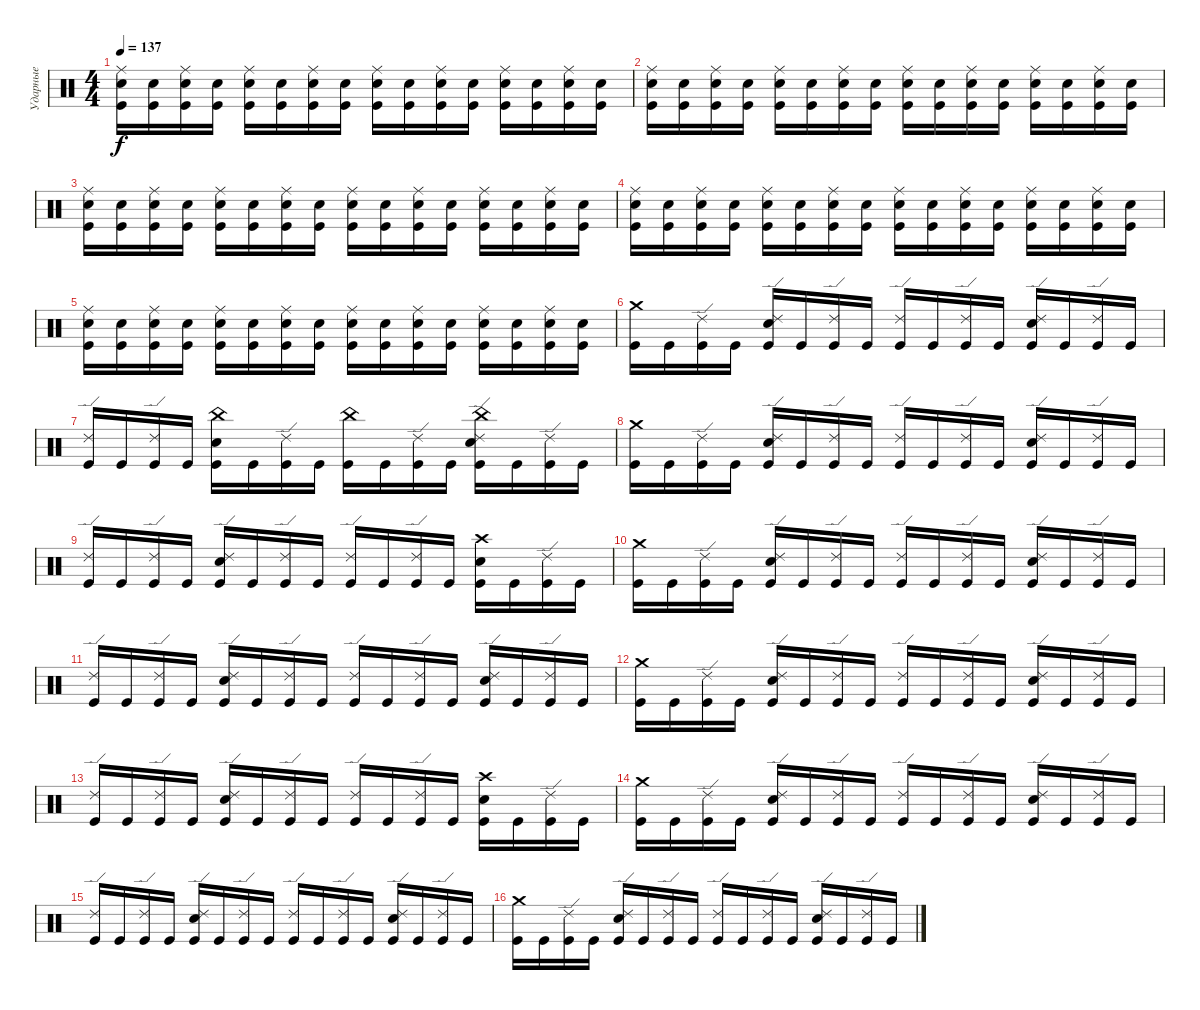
\track ("Ударные" "Ударные") {instrument percussion}
\staff {score}
\articulation defaults
\ts (4 4)
\tempo 137
\clef neutral
\ks c
("Ride (middle)" "Electric Snare (hit)" "Kick (hit)").16{dy f} ("Electric Snare (hit)" "Kick (hit)").16 ("Ride (middle)" "Electric Snare (hit)" "Kick (hit)").16 ("Electric Snare (hit)" "Kick (hit)").16 ("Ride (middle)" "Electric Snare (hit)" "Kick (hit)").16 ("Electric Snare (hit)" "Kick (hit)").16 ("Ride (middle)" "Electric Snare (hit)" "Kick (hit)").16 ("Electric Snare (hit)" "Kick (hit)").16 ("Ride (middle)" "Electric Snare (hit)" "Kick (hit)").16 ("Electric Snare (hit)" "Kick (hit)").16 ("Ride (middle)" "Electric Snare (hit)" "Kick (hit)").16 ("Electric Snare (hit)" "Kick (hit)").16 ("Ride (middle)" "Electric Snare (hit)" "Kick (hit)").16 ("Electric Snare (hit)" "Kick (hit)").16 ("Ride (middle)" "Electric Snare (hit)" "Kick (hit)").16 ("Electric Snare (hit)" "Kick (hit)").16 |
("Ride (middle)" "Electric Snare (hit)" "Kick (hit)").16 ("Electric Snare (hit)" "Kick (hit)").16 ("Ride (middle)" "Electric Snare (hit)" "Kick (hit)").16 ("Electric Snare (hit)" "Kick (hit)").16 ("Ride (middle)" "Electric Snare (hit)" "Kick (hit)").16 ("Electric Snare (hit)" "Kick (hit)").16 ("Ride (middle)" "Electric Snare (hit)" "Kick (hit)").16 ("Electric Snare (hit)" "Kick (hit)").16 ("Ride (middle)" "Electric Snare (hit)" "Kick (hit)").16 ("Electric Snare (hit)" "Kick (hit)").16 ("Ride (middle)" "Electric Snare (hit)" "Kick (hit)").16 ("Electric Snare (hit)" "Kick (hit)").16 ("Ride (middle)" "Electric Snare (hit)" "Kick (hit)").16 ("Electric Snare (hit)" "Kick (hit)").16 ("Ride (middle)" "Electric Snare (hit)" "Kick (hit)").16 ("Electric Snare (hit)" "Kick (hit)").16 |
("Ride (middle)" "Electric Snare (hit)" "Kick (hit)").16 ("Electric Snare (hit)" "Kick (hit)").16 ("Ride (middle)" "Electric Snare (hit)" "Kick (hit)").16 ("Electric Snare (hit)" "Kick (hit)").16 ("Ride (middle)" "Electric Snare (hit)" "Kick (hit)").16 ("Electric Snare (hit)" "Kick (hit)").16 ("Ride (middle)" "Electric Snare (hit)" "Kick (hit)").16 ("Electric Snare (hit)" "Kick (hit)").16 ("Ride (middle)" "Electric Snare (hit)" "Kick (hit)").16 ("Electric Snare (hit)" "Kick (hit)").16 ("Ride (middle)" "Electric Snare (hit)" "Kick (hit)").16 ("Electric Snare (hit)" "Kick (hit)").16 ("Ride (middle)" "Electric Snare (hit)" "Kick (hit)").16 ("Electric Snare (hit)" "Kick (hit)").16 ("Ride (middle)" "Electric Snare (hit)" "Kick (hit)").16 ("Electric Snare (hit)" "Kick (hit)").16 |
("Ride (middle)" "Electric Snare (hit)" "Kick (hit)").16 ("Electric Snare (hit)" "Kick (hit)").16 ("Ride (middle)" "Electric Snare (hit)" "Kick (hit)").16 ("Electric Snare (hit)" "Kick (hit)").16 ("Ride (middle)" "Electric Snare (hit)" "Kick (hit)").16 ("Electric Snare (hit)" "Kick (hit)").16 ("Ride (middle)" "Electric Snare (hit)" "Kick (hit)").16 ("Electric Snare (hit)" "Kick (hit)").16 ("Ride (middle)" "Electric Snare (hit)" "Kick (hit)").16 ("Electric Snare (hit)" "Kick (hit)").16 ("Ride (middle)" "Electric Snare (hit)" "Kick (hit)").16 ("Electric Snare (hit)" "Kick (hit)").16 ("Ride (middle)" "Electric Snare (hit)" "Kick (hit)").16 ("Electric Snare (hit)" "Kick (hit)").16 ("Ride (middle)" "Electric Snare (hit)" "Kick (hit)").16 ("Electric Snare (hit)" "Kick (hit)").16 |
("Ride (middle)" "Electric Snare (hit)" "Kick (hit)").16 ("Electric Snare (hit)" "Kick (hit)").16 ("Ride (middle)" "Electric Snare (hit)" "Kick (hit)").16 ("Electric Snare (hit)" "Kick (hit)").16 ("Ride (middle)" "Electric Snare (hit)" "Kick (hit)").16 ("Electric Snare (hit)" "Kick (hit)").16 ("Ride (middle)" "Electric Snare (hit)" "Kick (hit)").16 ("Electric Snare (hit)" "Kick (hit)").16 ("Ride (middle)" "Electric Snare (hit)" "Kick (hit)").16 ("Electric Snare (hit)" "Kick (hit)").16 ("Ride (middle)" "Electric Snare (hit)" "Kick (hit)").16 ("Electric Snare (hit)" "Kick (hit)").16 ("Ride (middle)" "Electric Snare (hit)" "Kick (hit)").16 ("Electric Snare (hit)" "Kick (hit)").16 ("Ride (middle)" "Electric Snare (hit)" "Kick (hit)").16 ("Electric Snare (hit)" "Kick (hit)").16 |
("Crash medium (hit)" "Kick (hit)").16 "Kick (hit)".16 ("Ride (edge) 2" "Kick (hit)").16 "Kick (hit)".16 ("Ride (edge) 2" "Electric Snare (hit)" "Kick (hit)").16 "Kick (hit)".16 ("Ride (edge) 2" "Kick (hit)").16 "Kick (hit)".16 ("Ride (edge) 2" "Kick (hit)").16 "Kick (hit)".16 ("Ride (edge) 2" "Kick (hit)").16 "Kick (hit)".16 ("Ride (edge) 2" "Electric Snare (hit)" "Kick (hit)").16 "Kick (hit)".16 ("Ride (edge) 2" "Kick (hit)").16 "Kick (hit)".16 |
("Ride (edge) 2" "Kick (hit)").16 "Kick (hit)".16 ("Ride (edge) 2" "Kick (hit)").16 "Kick (hit)".16 ("China (hit)" "Electric Snare (hit)" "Kick (hit)").16 "Kick (hit)".16 ("Ride (edge) 2" "Kick (hit)").16 "Kick (hit)".16 ("China (hit)" "Kick (hit)").16 "Kick (hit)".16 ("Ride (edge) 2" "Kick (hit)").16 "Kick (hit)".16 ("Ride (edge) 2" "China (hit)" "Electric Snare (hit)" "Kick (hit)").16 "Kick (hit)".16 ("Ride (edge) 2" "Kick (hit)").16 "Kick (hit)".16 |
("Crash medium (hit)" "Kick (hit)").16 "Kick (hit)".16 ("Ride (edge) 2" "Kick (hit)").16 "Kick (hit)".16 ("Ride (edge) 2" "Electric Snare (hit)" "Kick (hit)").16 "Kick (hit)".16 ("Ride (edge) 2" "Kick (hit)").16 "Kick (hit)".16 ("Ride (edge) 2" "Kick (hit)").16 "Kick (hit)".16 ("Ride (edge) 2" "Kick (hit)").16 "Kick (hit)".16 ("Ride (edge) 2" "Electric Snare (hit)" "Kick (hit)").16 "Kick (hit)".16 ("Ride (edge) 2" "Kick (hit)").16 "Kick (hit)".16 |
("Ride (edge) 2" "Kick (hit)").16 "Kick (hit)".16 ("Ride (edge) 2" "Kick (hit)").16 "Kick (hit)".16 ("Ride (edge) 2" "Electric Snare (hit)" "Kick (hit)").16 "Kick (hit)".16 ("Ride (edge) 2" "Kick (hit)").16 "Kick (hit)".16 ("Ride (edge) 2" "Kick (hit)").16 "Kick (hit)".16 ("Ride (edge) 2" "Kick (hit)").16 "Kick (hit)".16 ("Crash high (hit)" "Electric Snare (hit)" "Kick (hit)").16 "Kick (hit)".16 ("Ride (edge) 2" "Kick (hit)").16 "Kick (hit)".16 |
("Crash medium (hit)" "Kick (hit)").16 "Kick (hit)".16 ("Ride (edge) 2" "Kick (hit)").16 "Kick (hit)".16 ("Ride (edge) 2" "Electric Snare (hit)" "Kick (hit)").16 "Kick (hit)".16 ("Ride (edge) 2" "Kick (hit)").16 "Kick (hit)".16 ("Ride (edge) 2" "Kick (hit)").16 "Kick (hit)".16 ("Ride (edge) 2" "Kick (hit)").16 "Kick (hit)".16 ("Ride (edge) 2" "Electric Snare (hit)" "Kick (hit)").16 "Kick (hit)".16 ("Ride (edge) 2" "Kick (hit)").16 "Kick (hit)".16 |
("Ride (edge) 2" "Kick (hit)").16 "Kick (hit)".16 ("Ride (edge) 2" "Kick (hit)").16 "Kick (hit)".16 ("Ride (edge) 2" "Electric Snare (hit)" "Kick (hit)").16 "Kick (hit)".16 ("Ride (edge) 2" "Kick (hit)").16 "Kick (hit)".16 ("Ride (edge) 2" "Kick (hit)").16 "Kick (hit)".16 ("Ride (edge) 2" "Kick (hit)").16 "Kick (hit)".16 ("Ride (edge) 2" "Electric Snare (hit)" "Kick (hit)").16 "Kick (hit)".16 ("Ride (edge) 2" "Kick (hit)").16 "Kick (hit)".16 |
("Crash medium (hit)" "Kick (hit)").16 "Kick (hit)".16 ("Ride (edge) 2" "Kick (hit)").16 "Kick (hit)".16 ("Ride (edge) 2" "Electric Snare (hit)" "Kick (hit)").16 "Kick (hit)".16 ("Ride (edge) 2" "Kick (hit)").16 "Kick (hit)".16 ("Ride (edge) 2" "Kick (hit)").16 "Kick (hit)".16 ("Ride (edge) 2" "Kick (hit)").16 "Kick (hit)".16 ("Ride (edge) 2" "Electric Snare (hit)" "Kick (hit)").16 "Kick (hit)".16 ("Ride (edge) 2" "Kick (hit)").16 "Kick (hit)".16 |
("Ride (edge) 2" "Kick (hit)").16 "Kick (hit)".16 ("Ride (edge) 2" "Kick (hit)").16 "Kick (hit)".16 ("Ride (edge) 2" "Electric Snare (hit)" "Kick (hit)").16 "Kick (hit)".16 ("Ride (edge) 2" "Kick (hit)").16 "Kick (hit)".16 ("Ride (edge) 2" "Kick (hit)").16 "Kick (hit)".16 ("Ride (edge) 2" "Kick (hit)").16 "Kick (hit)".16 ("Crash high (hit)" "Electric Snare (hit)" "Kick (hit)").16 "Kick (hit)".16 ("Ride (edge) 2" "Kick (hit)").16 "Kick (hit)".16 |
("Crash medium (hit)" "Kick (hit)").16 "Kick (hit)".16 ("Ride (edge) 2" "Kick (hit)").16 "Kick (hit)".16 ("Ride (edge) 2" "Electric Snare (hit)" "Kick (hit)").16 "Kick (hit)".16 ("Ride (edge) 2" "Kick (hit)").16 "Kick (hit)".16 ("Ride (edge) 2" "Kick (hit)").16 "Kick (hit)".16 ("Ride (edge) 2" "Kick (hit)").16 "Kick (hit)".16 ("Ride (edge) 2" "Electric Snare (hit)" "Kick (hit)").16 "Kick (hit)".16 ("Ride (edge) 2" "Kick (hit)").16 "Kick (hit)".16 |
("Ride (edge) 2" "Kick (hit)").16 "Kick (hit)".16 ("Ride (edge) 2" "Kick (hit)").16 "Kick (hit)".16 ("Ride (edge) 2" "Electric Snare (hit)" "Kick (hit)").16 "Kick (hit)".16 ("Ride (edge) 2" "Kick (hit)").16 "Kick (hit)".16 ("Ride (edge) 2" "Kick (hit)").16 "Kick (hit)".16 ("Ride (edge) 2" "Kick (hit)").16 "Kick (hit)".16 ("Ride (edge) 2" "Electric Snare (hit)" "Kick (hit)").16 "Kick (hit)".16 ("Ride (edge) 2" "Kick (hit)").16 "Kick (hit)".16 |
("Crash medium (hit)" "Kick (hit)").16 "Kick (hit)".16 ("Ride (edge) 2" "Kick (hit)").16 "Kick (hit)".16 ("Ride (edge) 2" "Electric Snare (hit)" "Kick (hit)").16 "Kick (hit)".16 ("Ride (edge) 2" "Kick (hit)").16 "Kick (hit)".16 ("Ride (edge) 2" "Kick (hit)").16 "Kick (hit)".16 ("Ride (edge) 2" "Kick (hit)").16 "Kick (hit)".16 ("Ride (edge) 2" "Electric Snare (hit)" "Kick (hit)").16 "Kick (hit)".16 ("Ride (edge) 2" "Kick (hit)").16 "Kick (hit)".16
